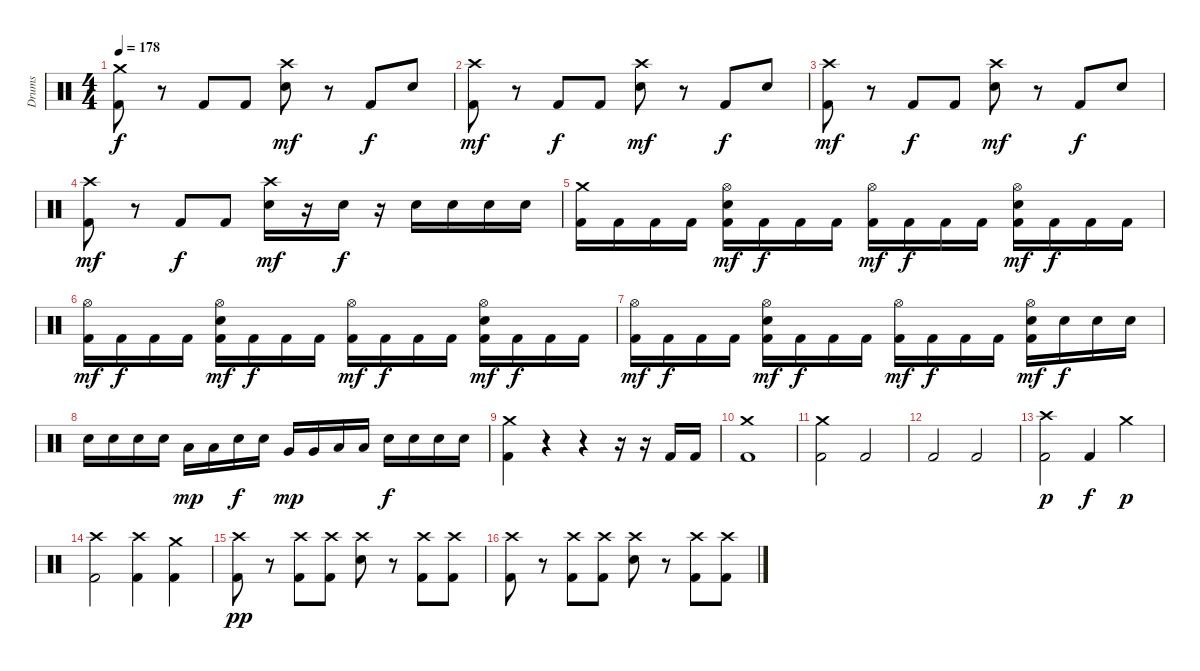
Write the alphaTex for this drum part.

\track ("Drums" "Drums") {instrument percussion}
\staff {score}
\articulation defaults
\ts (4 4)
\tempo 178
\clef neutral
\ks c
("Crash medium (hit)" "Kick (hit) 2").8{dy f} r.8 "Kick (hit) 2".8 "Kick (hit) 2".8 ("Crash high (hit)" "Snare (hit) 2").8{dy mf} r.8 "Kick (hit) 2".8{dy f} "Snare (hit) 2".8 |
("Crash high (hit)" "Kick (hit) 2").8{dy mf} r.8 "Kick (hit) 2".8{dy f} "Kick (hit) 2".8 ("Crash high (hit)" "Snare (hit) 2").8{dy mf} r.8 "Kick (hit) 2".8{dy f} "Snare (hit) 2".8 |
("Crash high (hit)" "Kick (hit) 2").8{dy mf} r.8 "Kick (hit) 2".8{dy f} "Kick (hit) 2".8 ("Crash high (hit)" "Snare (hit) 2").8{dy mf} r.8 "Kick (hit) 2".8{dy f} "Snare (hit) 2".8 |
("Crash high (hit)" "Kick (hit) 2").8{dy mf} r.8 "Kick (hit) 2".8{dy f} "Kick (hit) 2".8 ("Crash high (hit)" "Snare (hit) 2").16{dy mf} r.16 "Snare (hit) 2".16{dy f} r.16 "Snare (hit) 2".16 "Snare (hit) 2".16 "Snare (hit) 2".16 "Snare (hit) 2".16 |
("Crash medium (hit)" "Kick (hit) 2").16 "Kick (hit) 2".16 "Kick (hit) 2".16 "Kick (hit) 2".16 ("Hi-Hat (open)" "Snare (hit) 2" "Kick (hit) 2").16{dy mf} "Kick (hit) 2".16{dy f} "Kick (hit) 2".16 "Kick (hit) 2".16 ("Hi-Hat (open)" "Kick (hit) 2").16{dy mf} "Kick (hit) 2".16{dy f} "Kick (hit) 2".16 "Kick (hit) 2".16 ("Hi-Hat (open)" "Snare (hit) 2" "Kick (hit) 2").16{dy mf} "Kick (hit) 2".16{dy f} "Kick (hit) 2".16 "Kick (hit) 2".16 |
("Hi-Hat (open)" "Kick (hit) 2").16{dy mf} "Kick (hit) 2".16{dy f} "Kick (hit) 2".16 "Kick (hit) 2".16 ("Hi-Hat (open)" "Snare (hit) 2" "Kick (hit) 2").16{dy mf} "Kick (hit) 2".16{dy f} "Kick (hit) 2".16 "Kick (hit) 2".16 ("Hi-Hat (open)" "Kick (hit) 2").16{dy mf} "Kick (hit) 2".16{dy f} "Kick (hit) 2".16 "Kick (hit) 2".16 ("Hi-Hat (open)" "Snare (hit) 2" "Kick (hit) 2").16{dy mf} "Kick (hit) 2".16{dy f} "Kick (hit) 2".16 "Kick (hit) 2".16 |
("Hi-Hat (open)" "Kick (hit) 2").16{dy mf} "Kick (hit) 2".16{dy f} "Kick (hit) 2".16 "Kick (hit) 2".16 ("Hi-Hat (open)" "Snare (hit) 2" "Kick (hit) 2").16{dy mf} "Kick (hit) 2".16{dy f} "Kick (hit) 2".16 "Kick (hit) 2".16 ("Hi-Hat (open)" "Kick (hit) 2").16{dy mf} "Kick (hit) 2".16{dy f} "Kick (hit) 2".16 "Kick (hit) 2".16 ("Hi-Hat (open)" "Snare (hit) 2" "Kick (hit) 2").16{dy mf} "Snare (hit) 2".16{dy f} "Snare (hit) 2".16 "Snare (hit) 2".16 |
"Snare (hit) 2".16 "Snare (hit) 2".16 "Snare (hit) 2".16 "Snare (hit) 2".16 "Low Tom (hit)".16{dy mp} "Low Tom (hit)".16 "Snare (hit) 2".16{dy f} "Snare (hit) 2".16 "Very Low Tom (hit)".16{dy mp} "Very Low Tom (hit)".16 "Low Floor Tom (hit)".16 "Low Floor Tom (hit)".16 "Snare (hit) 2".16{dy f} "Snare (hit) 2".16 "Snare (hit) 2".16 "Snare (hit) 2".16 |
("Crash medium (hit)" "Kick (hit) 2").4 r.4 r.4 r.16 r.16 "Kick (hit) 2".16 "Kick (hit) 2".16 |
("Crash medium (hit)" "Kick (hit) 2").1 |
("Crash medium (hit)" "Kick (hit) 2").2 "Kick (hit) 2".2 |
"Kick (hit) 2".2 "Kick (hit) 2".2 |
("Crash high (hit)" "Kick (hit) 2").2{dy p} "Kick (hit) 2".4{dy f} "Crash medium (hit)".4{dy p} |
("Crash high (hit)" "Kick (hit) 2").2 ("Crash high (hit)" "Kick (hit) 2").4 ("Crash medium (hit)" "Kick (hit) 2").4 |
("Crash high (hit)" "Kick (hit) 2").8{dy pp} r.8 ("Crash high (hit)" "Kick (hit) 2").8 ("Crash high (hit)" "Kick (hit) 2").8 ("Crash high (hit)" "Snare (hit) 2").8 r.8 ("Crash high (hit)" "Kick (hit) 2").8 ("Crash high (hit)" "Kick (hit) 2").8 |
("Crash high (hit)" "Kick (hit) 2").8 r.8 ("Crash high (hit)" "Kick (hit) 2").8 ("Crash high (hit)" "Kick (hit) 2").8 ("Crash high (hit)" "Snare (hit) 2").8 r.8 ("Crash high (hit)" "Kick (hit) 2").8 ("Crash high (hit)" "Kick (hit) 2").8
